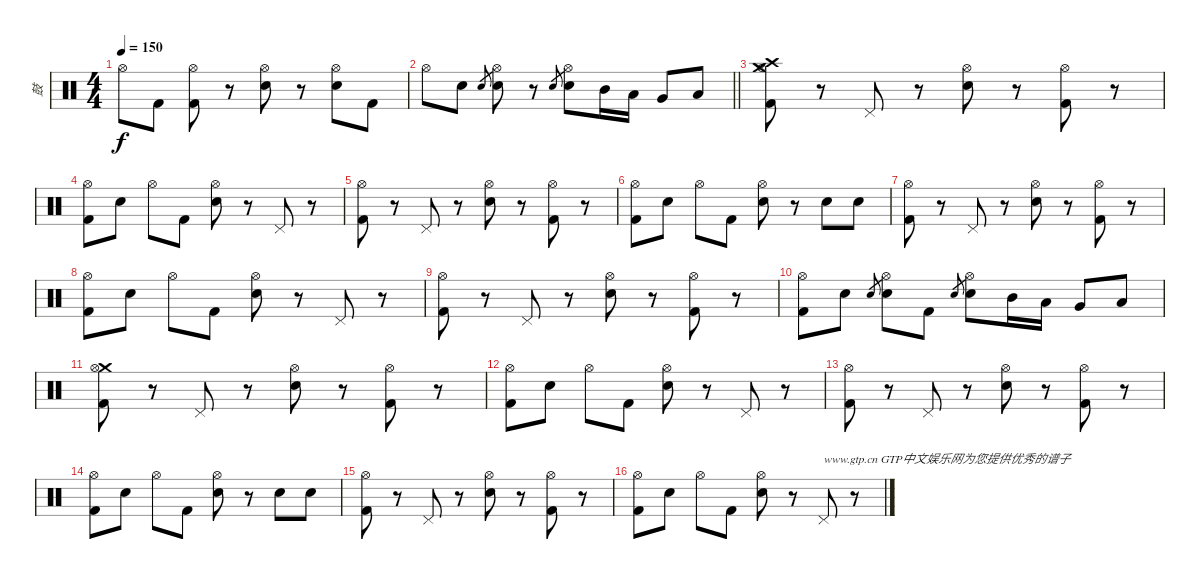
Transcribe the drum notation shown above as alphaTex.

\track ("鼓" "鼓") {instrument percussion}
\staff {score}
\articulation defaults
\ts (4 4)
\tempo 150
\clef neutral
\ks c "Hi-Hat (open)".8{dy f} "Kick (hit) 2".8
("Hi-Hat (open)" "Kick (hit) 2").8 r.8 ("Hi-Hat (open)" "Electric Snare (hit)").8 r.8 ("Hi-Hat (open)" "Electric Snare (hit)").8 "Kick (hit) 2".8 |
\barLineRight lightlight "Hi-Hat (open)".8 "Electric Snare (hit)".8 "Electric Snare (hit)".8{gr}
("Hi-Hat (open)" "Electric Snare (hit)").8 r.8 "Electric Snare (hit)".8{gr} ("Hi-Hat (open)" "Electric Snare (hit)").8 "Mid Tom (hit)".16 "Low Tom (hit)".16 "Very Low Tom (hit)".8 "Low Floor Tom (hit)".8 |
("Crash medium (hit)" "Hi-Hat (open)" "Kick (hit) 2" "Crash high (hit)").8 r.8 "Pedal Hi-Hat (hit)".8 r.8 ("Hi-Hat (open)" "Electric Snare (hit)").8 r.8 ("Hi-Hat (open)" "Kick (hit) 2").8 r.8 |
("Hi-Hat (open)" "Kick (hit) 2").8 "Electric Snare (hit)".8 "Hi-Hat (open)".8 "Kick (hit) 2".8 ("Hi-Hat (open)" "Electric Snare (hit)").8 r.8 "Pedal Hi-Hat (hit)".8 r.8 |
("Hi-Hat (open)" "Kick (hit) 2").8 r.8 "Pedal Hi-Hat (hit)".8 r.8 ("Hi-Hat (open)" "Electric Snare (hit)").8 r.8 ("Hi-Hat (open)" "Kick (hit) 2").8 r.8 |
("Hi-Hat (open)" "Kick (hit) 2").8 "Electric Snare (hit)".8 "Hi-Hat (open)".8 "Kick (hit) 2".8 ("Hi-Hat (open)" "Electric Snare (hit)").8 r.8 "Electric Snare (hit)".8 "Electric Snare (hit)".8 |
("Hi-Hat (open)" "Kick (hit) 2").8 r.8 "Pedal Hi-Hat (hit)".8 r.8 ("Hi-Hat (open)" "Electric Snare (hit)").8 r.8 ("Hi-Hat (open)" "Kick (hit) 2").8 r.8 |
("Hi-Hat (open)" "Kick (hit) 2").8 "Electric Snare (hit)".8 "Hi-Hat (open)".8 "Kick (hit) 2".8 ("Hi-Hat (open)" "Electric Snare (hit)").8 r.8 "Pedal Hi-Hat (hit)".8 r.8 |
("Hi-Hat (open)" "Kick (hit) 2").8 r.8 "Pedal Hi-Hat (hit)".8 r.8 ("Hi-Hat (open)" "Electric Snare (hit)").8 r.8 ("Hi-Hat (open)" "Kick (hit) 2").8 r.8 |
("Hi-Hat (open)" "Kick (hit) 2").8 "Electric Snare (hit)".8 "Electric Snare (hit)".8{gr} ("Hi-Hat (open)" "Electric Snare (hit)").8 "Kick (hit) 2".8 "Electric Snare (hit)".8{gr} ("Hi-Hat (open)" "Electric Snare (hit)").8 "Mid Tom (hit)".16 "Low Tom (hit)".16 "Very Low Tom (hit)".8 "Low Floor Tom (hit)".8 |
("Crash medium (hit)" "Hi-Hat (open)" "Kick (hit) 2").8 r.8 "Pedal Hi-Hat (hit)".8 r.8 ("Hi-Hat (open)" "Electric Snare (hit)").8 r.8 ("Hi-Hat (open)" "Kick (hit) 2").8 r.8 |
("Hi-Hat (open)" "Kick (hit) 2").8 "Electric Snare (hit)".8 "Hi-Hat (open)".8 "Kick (hit) 2".8 ("Hi-Hat (open)" "Electric Snare (hit)").8 r.8 "Pedal Hi-Hat (hit)".8 r.8 |
("Hi-Hat (open)" "Kick (hit) 2").8 r.8 "Pedal Hi-Hat (hit)".8 r.8 ("Hi-Hat (open)" "Electric Snare (hit)").8 r.8 ("Hi-Hat (open)" "Kick (hit) 2").8 r.8 |
("Hi-Hat (open)" "Kick (hit) 2").8 "Electric Snare (hit)".8 "Hi-Hat (open)".8 "Kick (hit) 2".8 ("Hi-Hat (open)" "Electric Snare (hit)").8 r.8 "Electric Snare (hit)".8 "Electric Snare (hit)".8 |
("Hi-Hat (open)" "Kick (hit) 2").8 r.8 "Pedal Hi-Hat (hit)".8 r.8 ("Hi-Hat (open)" "Electric Snare (hit)").8 r.8 ("Hi-Hat (open)" "Kick (hit) 2").8 r.8 |
("Hi-Hat (open)" "Kick (hit) 2").8 "Electric Snare (hit)".8 "Hi-Hat (open)".8 "Kick (hit) 2".8 ("Hi-Hat (open)" "Electric Snare (hit)").8 r.8 "Pedal Hi-Hat (hit)".8{txt "www.gtp.cn GTP中文娱乐网为您提供优秀的谱子"} r.8
